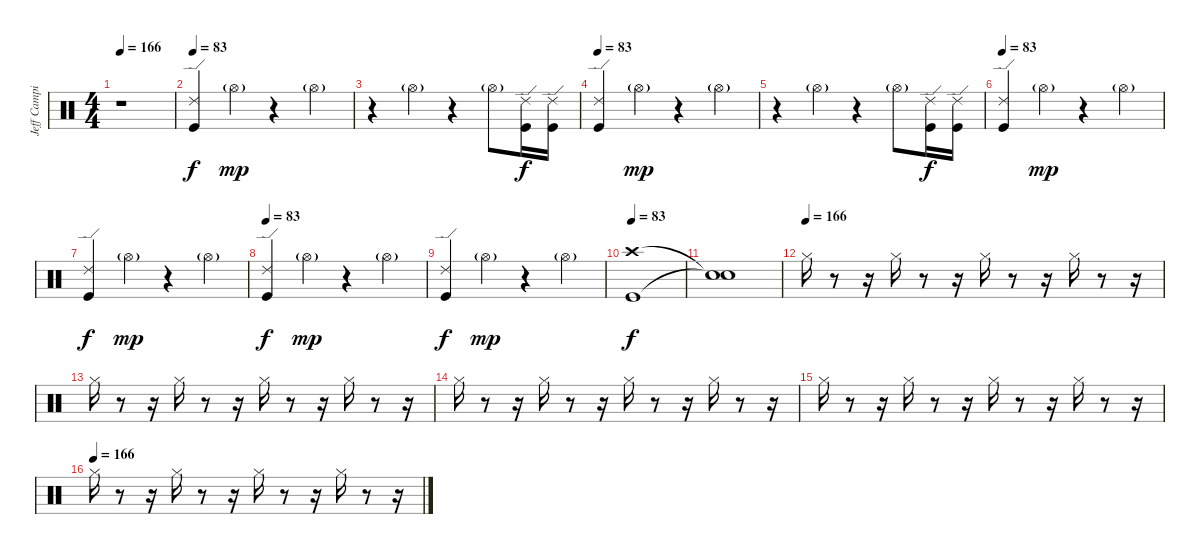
\track ("Jeff Campitelli" "Jeff Campi") {instrument percussion}
\staff {score}
\articulation defaults
\ts (4 4)
\tempo 166
\clef neutral
\ks c
r.1{dy f} |
\tempo 83
("Kick (hit)" "Ride (edge) 2").4{volume 5} "Hi-Hat (open)"{g}.4{dy mp} r.4 "Hi-Hat (open)"{g}.4 |
r.4 "Hi-Hat (open)"{g}.4 r.4 "Hi-Hat (open)"{g}.8 ("Kick (hit)" "Ride (edge) 2").16{dy f} ("Kick (hit)" "Ride (edge) 2").16 |
\tempo 83
("Kick (hit)" "Ride (edge) 2").4 "Hi-Hat (open)"{g}.4{dy mp} r.4 "Hi-Hat (open)"{g}.4 |
r.4 "Hi-Hat (open)"{g}.4 r.4 "Hi-Hat (open)"{g}.8 ("Kick (hit)" "Ride (edge) 2").16{dy f} ("Kick (hit)" "Ride (edge) 2").16 |
\tempo 83
("Kick (hit)" "Ride (edge) 2").4 "Hi-Hat (open)"{g}.4{dy mp} r.4 "Hi-Hat (open)"{g}.4 |
("Kick (hit)" "Ride (edge) 2").4{dy f} "Hi-Hat (open)"{g}.4{dy mp} r.4 "Hi-Hat (open)"{g}.4 |
\tempo 83
("Kick (hit)" "Ride (edge) 2").4{dy f} "Hi-Hat (open)"{g}.4{dy mp} r.4 "Hi-Hat (open)"{g}.4 |
("Kick (hit)" "Ride (edge) 2").4{dy f} "Hi-Hat (open)"{g}.4{dy mp} r.4 "Hi-Hat (open)"{g}.4 |
\tempo 83
("Kick (hit)" "Crash high (hit)").1{dy f} |
("Snare (hit)"{t} "Snare (hit)"{t}).1 |
\tempo (166)
"Hi-Hat (closed)".16 r.8 r.16 "Hi-Hat (closed)".16 r.8 r.16 "Hi-Hat (closed)".16 r.8 r.16 "Hi-Hat (closed)".16 r.8 r.16 |
"Hi-Hat (closed)".16 r.8 r.16 "Hi-Hat (closed)".16 r.8 r.16 "Hi-Hat (closed)".16 r.8 r.16 "Hi-Hat (closed)".16 r.8 r.16 |
"Hi-Hat (closed)".16 r.8 r.16 "Hi-Hat (closed)".16 r.8 r.16 "Hi-Hat (closed)".16 r.8 r.16 "Hi-Hat (closed)".16 r.8 r.16 |
"Hi-Hat (closed)".16 r.8 r.16 "Hi-Hat (closed)".16 r.8 r.16 "Hi-Hat (closed)".16 r.8 r.16 "Hi-Hat (closed)".16 r.8 r.16 |
\tempo (166)
"Hi-Hat (closed)".16 r.8 r.16 "Hi-Hat (closed)".16 r.8 r.16 "Hi-Hat (closed)".16 r.8 r.16 "Hi-Hat (closed)".16 r.8 r.16
